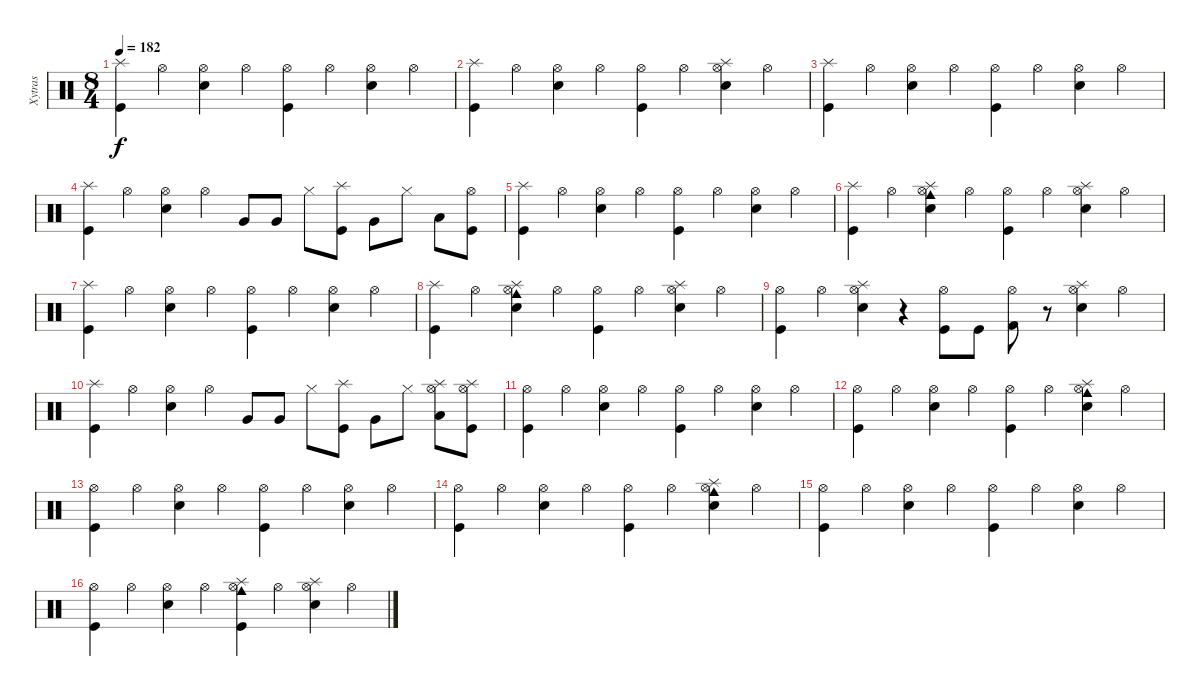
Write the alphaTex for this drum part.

\track ("Xytras" "Xytras") {instrument percussion}
\staff {score}
\articulation defaults
\ts (8 4)
\tempo 182
\clef neutral
\ks c
("Splash (hit)" "Kick (hit)").4{dy f} "Hi-Hat (open)".4 ("Hi-Hat (open)" "Electric Snare (hit)").4 "Hi-Hat (open)".4 ("Hi-Hat (open)" "Kick (hit)").4 "Hi-Hat (open)".4 ("Hi-Hat (open)" "Electric Snare (hit)").4 "Hi-Hat (open)".4 |
("Splash (hit)" "Kick (hit)").4 "Hi-Hat (open)".4 ("Hi-Hat (open)" "Electric Snare (hit)").4 "Hi-Hat (open)".4 ("Hi-Hat (open)" "Kick (hit)").4 "Hi-Hat (open)".4 ("Splash (hit)" "Electric Snare (hit)" "Hi-Hat (open)").4 "Hi-Hat (open)".4 |
("Splash (hit)" "Kick (hit)").4 "Hi-Hat (open)".4 ("Hi-Hat (open)" "Electric Snare (hit)").4 "Hi-Hat (open)".4 ("Hi-Hat (open)" "Kick (hit)").4 "Hi-Hat (open)".4 ("Hi-Hat (open)" "Electric Snare (hit)").4 "Hi-Hat (open)".4 |
("Splash (hit)" "Kick (hit)").4 "Hi-Hat (open)".4 ("Hi-Hat (open)" "Electric Snare (hit)").4 "Hi-Hat (open)".4 "Very Low Tom (hit)".8 "Very Low Tom (hit)".8 "Hi-Hat (closed)".8 ("Kick (hit)" "Splash (hit)").8 "Very Low Tom (hit)".8 "Hi-Hat (closed)".8 "Low Floor Tom (hit)".8 ("Kick (hit)" "Hi-Hat (open)").8 |
("Splash (hit)" "Kick (hit)").4 "Hi-Hat (open)".4 ("Hi-Hat (open)" "Electric Snare (hit)").4 "Hi-Hat (open)".4 ("Hi-Hat (open)" "Kick (hit)").4 "Hi-Hat (open)".4 ("Hi-Hat (open)" "Electric Snare (hit)").4 "Hi-Hat (open)".4 |
("Splash (hit)" "Kick (hit)").4 "Hi-Hat (open)".4 ("Hi-Hat (open)" "Electric Snare (hit)" "Splash (hit)" "Cowbell medium (hit)").4 "Hi-Hat (open)".4 ("Hi-Hat (open)" "Kick (hit)").4 "Hi-Hat (open)".4 ("Splash (hit)" "Electric Snare (hit)" "Hi-Hat (open)").4 "Hi-Hat (open)".4 |
("Splash (hit)" "Kick (hit)").4 "Hi-Hat (open)".4 ("Hi-Hat (open)" "Electric Snare (hit)").4 "Hi-Hat (open)".4 ("Hi-Hat (open)" "Kick (hit)").4 "Hi-Hat (open)".4 ("Hi-Hat (open)" "Electric Snare (hit)").4 "Hi-Hat (open)".4 |
("Splash (hit)" "Kick (hit)").4 "Hi-Hat (open)".4 ("Hi-Hat (open)" "Electric Snare (hit)" "Splash (hit)" "Cowbell medium (hit)").4 "Hi-Hat (open)".4 ("Hi-Hat (open)" "Kick (hit)").4 "Hi-Hat (open)".4 ("Splash (hit)" "Electric Snare (hit)" "Hi-Hat (open)").4 "Hi-Hat (open)".4 |
("Hi-Hat (open)" "Kick (hit)").4 "Hi-Hat (open)".4 ("Hi-Hat (open)" "Electric Snare (hit)" "Splash (hit)").4 r.4 ("Hi-Hat (open)" "Kick (hit)").8 "Kick (hit)".8 ("Hi-Hat (open)" "Kick (hit) 2").8 r.8 ("Electric Snare (hit)" "Splash (hit)" "Hi-Hat (open)").4 "Hi-Hat (open)".4 |
("Splash (hit)" "Kick (hit)").4 "Hi-Hat (open)".4 ("Hi-Hat (open)" "Electric Snare (hit)").4 "Hi-Hat (open)".4 "Very Low Tom (hit)".8 "Very Low Tom (hit)".8 "Hi-Hat (closed)".8 ("Kick (hit)" "Splash (hit)").8 "Very Low Tom (hit)".8 "Hi-Hat (closed)".8 ("Low Floor Tom (hit)" "Splash (hit)" "Hi-Hat (open)").8 ("Kick (hit)" "Hi-Hat (open)" "Splash (hit)").8 |
("Hi-Hat (open)" "Kick (hit)").4 "Hi-Hat (open)".4 ("Hi-Hat (open)" "Electric Snare (hit)").4 "Hi-Hat (open)".4 ("Hi-Hat (open)" "Kick (hit)").4 "Hi-Hat (open)".4 ("Hi-Hat (open)" "Electric Snare (hit)").4 "Hi-Hat (open)".4 |
("Hi-Hat (open)" "Kick (hit)").4 "Hi-Hat (open)".4 ("Hi-Hat (open)" "Electric Snare (hit)").4 "Hi-Hat (open)".4 ("Hi-Hat (open)" "Kick (hit)").4 "Hi-Hat (open)".4 ("Hi-Hat (open)" "Electric Snare (hit)" "Splash (hit)" "Cowbell medium (hit)").4 "Hi-Hat (open)".4 |
("Hi-Hat (open)" "Kick (hit)").4 "Hi-Hat (open)".4 ("Hi-Hat (open)" "Electric Snare (hit)").4 "Hi-Hat (open)".4 ("Hi-Hat (open)" "Kick (hit)").4 "Hi-Hat (open)".4 ("Hi-Hat (open)" "Electric Snare (hit)").4 "Hi-Hat (open)".4 |
("Hi-Hat (open)" "Kick (hit)").4 "Hi-Hat (open)".4 ("Hi-Hat (open)" "Electric Snare (hit)").4 "Hi-Hat (open)".4 ("Hi-Hat (open)" "Kick (hit)").4 "Hi-Hat (open)".4 ("Hi-Hat (open)" "Electric Snare (hit)" "Splash (hit)" "Cowbell medium (hit)").4 "Hi-Hat (open)".4 |
("Hi-Hat (open)" "Kick (hit)").4 "Hi-Hat (open)".4 ("Hi-Hat (open)" "Electric Snare (hit)").4 "Hi-Hat (open)".4 ("Hi-Hat (open)" "Kick (hit)").4 "Hi-Hat (open)".4 ("Hi-Hat (open)" "Electric Snare (hit)").4 "Hi-Hat (open)".4 |
("Hi-Hat (open)" "Kick (hit)").4 "Hi-Hat (open)".4 ("Hi-Hat (open)" "Electric Snare (hit)").4 "Hi-Hat (open)".4 ("Hi-Hat (open)" "Kick (hit)" "Splash (hit)" "Cowbell medium (hit)").4 "Hi-Hat (open)".4 ("Hi-Hat (open)" "Electric Snare (hit)" "Splash (hit)").4 "Hi-Hat (open)".4
